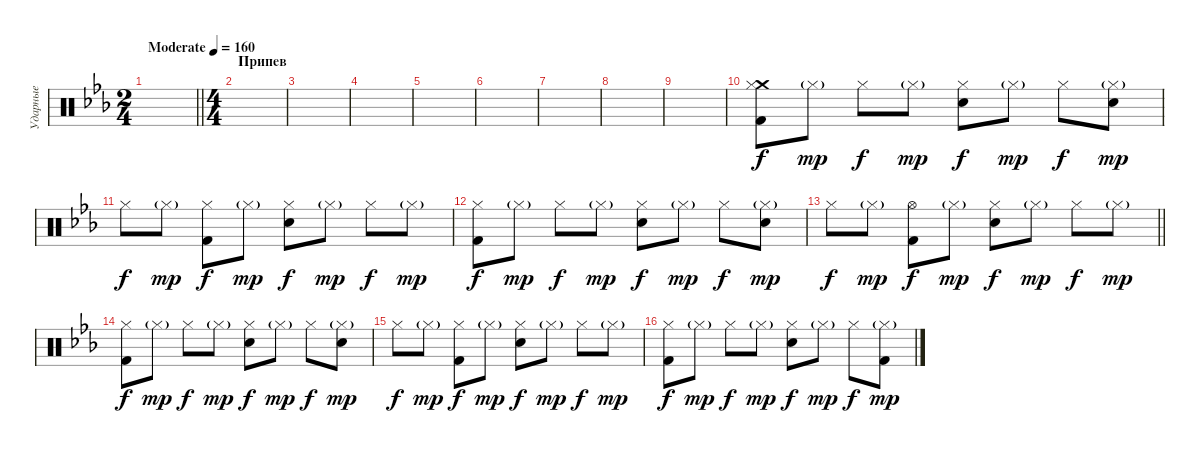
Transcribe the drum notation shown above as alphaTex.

\track ("Ударные" "Ударные") {instrument percussion}
\staff {score}
\articulation defaults
\ts (2 4)
\tempo (160 "Moderate")
\clef neutral
\barLineRight lightlight
\ks cminor
|
\ts (4 4)
\section ("" "Припев")
|
|
|
|
|
|
|
|
("Crash medium (hit)" "Kick (hit) 2" "Hi-Hat (closed)").8 "Hi-Hat (closed)"{g}.8{dy mp} "Hi-Hat (closed)".8{dy f} "Hi-Hat (closed)"{g}.8{dy mp} ("Electric Snare (hit)" "Hi-Hat (closed)").8{dy f} "Hi-Hat (closed)"{g}.8{dy mp} "Hi-Hat (closed)".8{dy f} ("Electric Snare (hit)" "Hi-Hat (closed)"{g}).8{dy mp} |
"Hi-Hat (closed)".8{dy f} "Hi-Hat (closed)"{g}.8{dy mp} ("Kick (hit) 2" "Hi-Hat (closed)").8{dy f} "Hi-Hat (closed)"{g}.8{dy mp} ("Electric Snare (hit)" "Hi-Hat (closed)").8{dy f} "Hi-Hat (closed)"{g}.8{dy mp} "Hi-Hat (closed)".8{dy f} "Hi-Hat (closed)"{g}.8{dy mp} |
("Kick (hit) 2" "Hi-Hat (closed)").8{dy f} "Hi-Hat (closed)"{g}.8{dy mp} "Hi-Hat (closed)".8{dy f} "Hi-Hat (closed)"{g}.8{dy mp} ("Electric Snare (hit)" "Hi-Hat (closed)").8{dy f} "Hi-Hat (closed)"{g}.8{dy mp} "Hi-Hat (closed)".8{dy f} ("Electric Snare (hit)" "Hi-Hat (closed)"{g}).8{dy mp} |
\barLineRight lightlight "Hi-Hat (closed)".8{dy f} "Hi-Hat (closed)"{g}.8{dy mp}
("Kick (hit) 2" "Hi-Hat (open)").8{dy f} "Hi-Hat (closed)"{g}.8{dy mp} ("Electric Snare (hit)" "Hi-Hat (closed)").8{dy f} "Hi-Hat (closed)"{g}.8{dy mp} "Hi-Hat (closed)".8{dy f} "Hi-Hat (closed)"{g}.8{dy mp} |
("Kick (hit) 2" "Hi-Hat (closed)").8{dy f} "Hi-Hat (closed)"{g}.8{dy mp} "Hi-Hat (closed)".8{dy f} "Hi-Hat (closed)"{g}.8{dy mp} ("Electric Snare (hit)" "Hi-Hat (closed)").8{dy f} "Hi-Hat (closed)"{g}.8{dy mp} "Hi-Hat (closed)".8{dy f} ("Electric Snare (hit)" "Hi-Hat (closed)"{g}).8{dy mp} |
"Hi-Hat (closed)".8{dy f} "Hi-Hat (closed)"{g}.8{dy mp} ("Kick (hit) 2" "Hi-Hat (closed)").8{dy f} "Hi-Hat (closed)"{g}.8{dy mp} ("Electric Snare (hit)" "Hi-Hat (closed)").8{dy f} "Hi-Hat (closed)"{g}.8{dy mp} "Hi-Hat (closed)".8{dy f} "Hi-Hat (closed)"{g}.8{dy mp} |
("Kick (hit) 2" "Hi-Hat (closed)").8{dy f} "Hi-Hat (closed)"{g}.8{dy mp} "Hi-Hat (closed)".8{dy f} "Hi-Hat (closed)"{g}.8{dy mp} ("Electric Snare (hit)" "Hi-Hat (closed)").8{dy f} "Hi-Hat (closed)"{g}.8{dy mp} "Hi-Hat (closed)".8{dy f} ("Kick (hit) 2" "Hi-Hat (closed)"{g}).8{dy mp}
